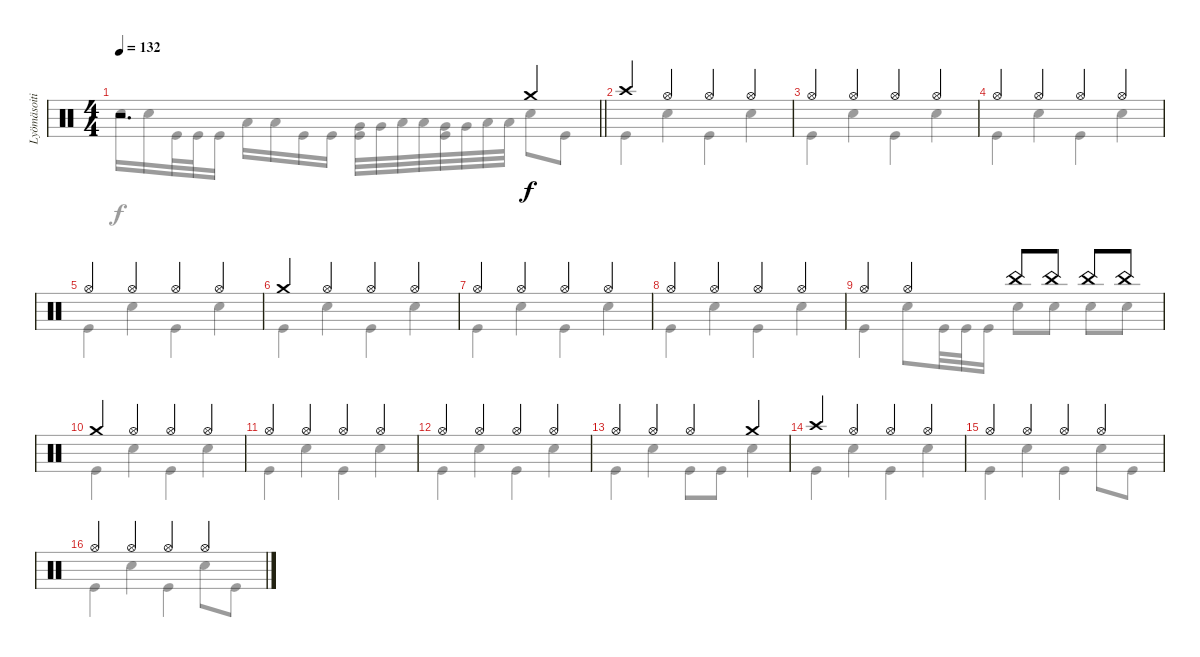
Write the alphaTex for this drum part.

\track ("Lyömäsoitin" "Lyömäsoiti") {instrument percussion}
\staff {score}
\articulation defaults
\voice
\ts (4 4)
\tempo 132
\clef neutral
\barLineRight lightlight
\ks c
r.2{d dy f} "Crash medium (hit)".4 |
\section ("" "")
"Crash high (hit)".4 "Hi-Hat (open)".4 "Hi-Hat (open)".4 "Hi-Hat (open)".4 |
"Hi-Hat (open)".4 "Hi-Hat (open)".4 "Hi-Hat (open)".4 "Hi-Hat (open)".4 |
"Hi-Hat (open)".4 "Hi-Hat (open)".4 "Hi-Hat (open)".4 "Hi-Hat (open)".4 |
"Hi-Hat (open)".4 "Hi-Hat (open)".4 "Hi-Hat (open)".4 "Hi-Hat (open)".4 |
"Crash medium (hit)".4 "Hi-Hat (open)".4 "Hi-Hat (open)".4 "Hi-Hat (open)".4 |
"Hi-Hat (open)".4 "Hi-Hat (open)".4 "Hi-Hat (open)".4 "Hi-Hat (open)".4 |
"Hi-Hat (open)".4 "Hi-Hat (open)".4 "Hi-Hat (open)".4 "Hi-Hat (open)".4 |
"Hi-Hat (open)".4 "Hi-Hat (open)".4 "China (hit)".8 "China (hit)".8 "China (hit)".8 "China (hit)".8 |
"Crash medium (hit)".4 "Hi-Hat (open)".4 "Hi-Hat (open)".4 "Hi-Hat (open)".4 |
"Hi-Hat (open)".4 "Hi-Hat (open)".4 "Hi-Hat (open)".4 "Hi-Hat (open)".4 |
"Hi-Hat (open)".4 "Hi-Hat (open)".4 "Hi-Hat (open)".4 "Hi-Hat (open)".4 |
"Hi-Hat (open)".4 "Hi-Hat (open)".4 "Hi-Hat (open)".4 "Crash medium (hit)".4 |
"Crash high (hit)".4 "Hi-Hat (open)".4 "Hi-Hat (open)".4 "Hi-Hat (open)".4 |
"Hi-Hat (open)".4 "Hi-Hat (open)".4 "Hi-Hat (open)".4 "Hi-Hat (open)".4 |
"Hi-Hat (open)".4 "Hi-Hat (open)".4 "Hi-Hat (open)".4 "Hi-Hat (open)".4
\voice
\clef neutral
\ottava regular
\simile none
\barLineRight lightlight
\ks c "Electric Snare (hit)".16{dy f} "Electric Snare (hit)".16 "Kick (hit)".32 "Kick (hit)".32 "Kick (hit)".16 "Low Tom (hit)".16 "Low Tom (hit)".16 "Kick (hit)".16 "Kick (hit)".16
("Very Low Tom (hit)" "Kick (hit)").32 "Very Low Tom (hit)".32 "Low Floor Tom (hit)".32 "Low Floor Tom (hit)".32 ("Very Low Tom (hit)" "Kick (hit)").32 "Very Low Tom (hit)".32 "Low Floor Tom (hit)".32 "Low Floor Tom (hit)".32 "Electric Snare (hit)".8 "Kick (hit)".8 |
"Kick (hit)".4 "Electric Snare (hit)".4 "Kick (hit)".4 "Electric Snare (hit)".4 |
"Kick (hit)".4 "Electric Snare (hit)".4 "Kick (hit)".4 "Electric Snare (hit)".4 |
"Kick (hit)".4 "Electric Snare (hit)".4 "Kick (hit)".4 "Electric Snare (hit)".4 |
"Kick (hit)".4 "Electric Snare (hit)".4 "Kick (hit)".4 "Electric Snare (hit)".4 |
"Kick (hit)".4 "Electric Snare (hit)".4 "Kick (hit)".4 "Electric Snare (hit)".4 |
"Kick (hit)".4 "Electric Snare (hit)".4 "Kick (hit)".4 "Electric Snare (hit)".4 |
"Kick (hit)".4 "Electric Snare (hit)".4 "Kick (hit)".4 "Electric Snare (hit)".4 |
"Kick (hit)".4 "Electric Snare (hit)".8 "Kick (hit)".32 "Kick (hit)".32 "Kick (hit)".16 "Electric Snare (hit)".8 "Electric Snare (hit)".8 "Electric Snare (hit)".8 "Electric Snare (hit)".8 |
"Kick (hit)".4 "Electric Snare (hit)".4 "Kick (hit)".4 "Electric Snare (hit)".4 |
"Kick (hit)".4 "Electric Snare (hit)".4 "Kick (hit)".4 "Electric Snare (hit)".4 |
"Kick (hit)".4 "Electric Snare (hit)".4 "Kick (hit)".4 "Electric Snare (hit)".4 |
"Kick (hit)".4 "Electric Snare (hit)".4 "Kick (hit)".8 "Kick (hit)".8 "Electric Snare (hit)".4 |
"Kick (hit)".4 "Electric Snare (hit)".4 "Kick (hit)".4 "Electric Snare (hit)".4 |
"Kick (hit)".4 "Electric Snare (hit)".4 "Kick (hit)".4 "Electric Snare (hit)".8 "Kick (hit)".8 |
"Kick (hit)".4 "Electric Snare (hit)".4 "Kick (hit)".4 "Electric Snare (hit)".8 "Kick (hit)".8
